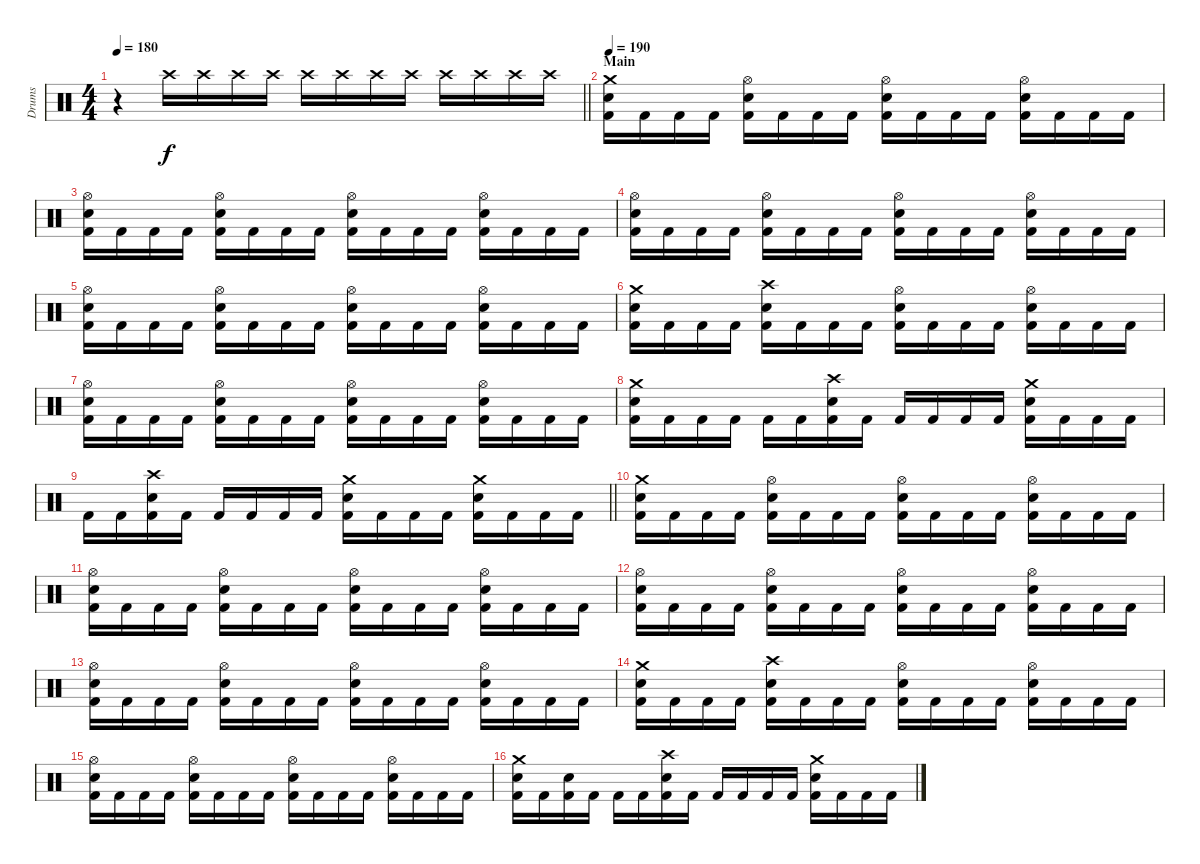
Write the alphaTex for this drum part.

\track ("Drums" "Drums") {instrument percussion}
\staff {score}
\articulation defaults
\ts (4 4)
\section ("" "")
\tempo 180
\clef neutral
\barLineRight lightlight
\ks c
r.4{dy f volume 0} "Crash high (hit)".16{volume 16} "Crash high (hit)".16 "Crash high (hit)".16 "Crash high (hit)".16 "Crash high (hit)".16 "Crash high (hit)".16 "Crash high (hit)".16 "Crash high (hit)".16 "Crash high (hit)".16 "Crash high (hit)".16 "Crash high (hit)".16 "Crash high (hit)".16 |
\section ("" "Main")
\tempo 190
("Kick (hit) 2" "Snare (hit) 2" "Crash medium (hit)").16 "Kick (hit) 2".16 "Kick (hit) 2".16 "Kick (hit) 2".16 ("Kick (hit) 2" "Snare (hit) 2" "Hi-Hat (open)").16 "Kick (hit) 2".16 "Kick (hit) 2".16 "Kick (hit) 2".16 ("Kick (hit) 2" "Snare (hit) 2" "Hi-Hat (open)").16 "Kick (hit) 2".16 "Kick (hit) 2".16 "Kick (hit) 2".16 ("Kick (hit) 2" "Snare (hit) 2" "Hi-Hat (open)").16 "Kick (hit) 2".16 "Kick (hit) 2".16 "Kick (hit) 2".16 |
("Kick (hit) 2" "Snare (hit) 2" "Hi-Hat (open)").16 "Kick (hit) 2".16 "Kick (hit) 2".16 "Kick (hit) 2".16 ("Kick (hit) 2" "Snare (hit) 2" "Hi-Hat (open)").16 "Kick (hit) 2".16 "Kick (hit) 2".16 "Kick (hit) 2".16 ("Kick (hit) 2" "Snare (hit) 2" "Hi-Hat (open)").16 "Kick (hit) 2".16 "Kick (hit) 2".16 "Kick (hit) 2".16 ("Kick (hit) 2" "Snare (hit) 2" "Hi-Hat (open)").16 "Kick (hit) 2".16 "Kick (hit) 2".16 "Kick (hit) 2".16 |
("Kick (hit) 2" "Snare (hit) 2" "Hi-Hat (open)").16 "Kick (hit) 2".16 "Kick (hit) 2".16 "Kick (hit) 2".16 ("Kick (hit) 2" "Snare (hit) 2" "Hi-Hat (open)").16 "Kick (hit) 2".16 "Kick (hit) 2".16 "Kick (hit) 2".16 ("Kick (hit) 2" "Snare (hit) 2" "Hi-Hat (open)").16 "Kick (hit) 2".16 "Kick (hit) 2".16 "Kick (hit) 2".16 ("Kick (hit) 2" "Snare (hit) 2" "Hi-Hat (open)").16 "Kick (hit) 2".16 "Kick (hit) 2".16 "Kick (hit) 2".16 |
("Kick (hit) 2" "Snare (hit) 2" "Hi-Hat (open)").16 "Kick (hit) 2".16 "Kick (hit) 2".16 "Kick (hit) 2".16 ("Kick (hit) 2" "Snare (hit) 2" "Hi-Hat (open)").16 "Kick (hit) 2".16 "Kick (hit) 2".16 "Kick (hit) 2".16 ("Kick (hit) 2" "Snare (hit) 2" "Hi-Hat (open)").16 "Kick (hit) 2".16 "Kick (hit) 2".16 "Kick (hit) 2".16 ("Kick (hit) 2" "Snare (hit) 2" "Hi-Hat (open)").16 "Kick (hit) 2".16 "Kick (hit) 2".16 "Kick (hit) 2".16 |
("Kick (hit) 2" "Snare (hit) 2" "Crash medium (hit)").16 "Kick (hit) 2".16 "Kick (hit) 2".16 "Kick (hit) 2".16 ("Kick (hit) 2" "Snare (hit) 2" "Crash high (hit)").16 "Kick (hit) 2".16 "Kick (hit) 2".16 "Kick (hit) 2".16 ("Kick (hit) 2" "Snare (hit) 2" "Hi-Hat (open)").16 "Kick (hit) 2".16 "Kick (hit) 2".16 "Kick (hit) 2".16 ("Kick (hit) 2" "Snare (hit) 2" "Hi-Hat (open)").16 "Kick (hit) 2".16 "Kick (hit) 2".16 "Kick (hit) 2".16 |
("Kick (hit) 2" "Snare (hit) 2" "Hi-Hat (open)").16 "Kick (hit) 2".16 "Kick (hit) 2".16 "Kick (hit) 2".16 ("Kick (hit) 2" "Snare (hit) 2" "Hi-Hat (open)").16 "Kick (hit) 2".16 "Kick (hit) 2".16 "Kick (hit) 2".16 ("Kick (hit) 2" "Snare (hit) 2" "Hi-Hat (open)").16 "Kick (hit) 2".16 "Kick (hit) 2".16 "Kick (hit) 2".16 ("Kick (hit) 2" "Snare (hit) 2" "Hi-Hat (open)").16 "Kick (hit) 2".16 "Kick (hit) 2".16 "Kick (hit) 2".16 |
("Kick (hit) 2" "Snare (hit) 2" "Crash medium (hit)").16 "Kick (hit) 2".16 "Kick (hit) 2".16 "Kick (hit) 2".16 "Kick (hit) 2".16 "Kick (hit) 2".16 ("Kick (hit) 2" "Snare (hit) 2" "Crash high (hit)").16 "Kick (hit) 2".16 "Kick (hit) 2".16 "Kick (hit) 2".16 "Kick (hit) 2".16 "Kick (hit) 2".16 ("Kick (hit) 2" "Snare (hit) 2" "Crash medium (hit)").16 "Kick (hit) 2".16 "Kick (hit) 2".16 "Kick (hit) 2".16 |
\barLineRight lightlight "Kick (hit) 2".16 "Kick (hit) 2".16
("Kick (hit) 2" "Snare (hit) 2" "Crash high (hit)").16 "Kick (hit) 2".16 "Kick (hit) 2".16 "Kick (hit) 2".16 "Kick (hit) 2".16 "Kick (hit) 2".16 ("Kick (hit) 2" "Snare (hit) 2" "Crash medium (hit)").16 "Kick (hit) 2".16 "Kick (hit) 2".16 "Kick (hit) 2".16 ("Kick (hit) 2" "Snare (hit) 2" "Crash medium (hit)").16 "Kick (hit) 2".16 "Kick (hit) 2".16 "Kick (hit) 2".16 |
\section ("" "")
("Kick (hit) 2" "Snare (hit) 2" "Crash medium (hit)").16 "Kick (hit) 2".16 "Kick (hit) 2".16 "Kick (hit) 2".16 ("Kick (hit) 2" "Snare (hit) 2" "Hi-Hat (open)").16 "Kick (hit) 2".16 "Kick (hit) 2".16 "Kick (hit) 2".16 ("Kick (hit) 2" "Snare (hit) 2" "Hi-Hat (open)").16 "Kick (hit) 2".16 "Kick (hit) 2".16 "Kick (hit) 2".16 ("Kick (hit) 2" "Snare (hit) 2" "Hi-Hat (open)").16 "Kick (hit) 2".16 "Kick (hit) 2".16 "Kick (hit) 2".16 |
("Kick (hit) 2" "Snare (hit) 2" "Hi-Hat (open)").16 "Kick (hit) 2".16 "Kick (hit) 2".16 "Kick (hit) 2".16 ("Kick (hit) 2" "Snare (hit) 2" "Hi-Hat (open)").16 "Kick (hit) 2".16 "Kick (hit) 2".16 "Kick (hit) 2".16 ("Kick (hit) 2" "Snare (hit) 2" "Hi-Hat (open)").16 "Kick (hit) 2".16 "Kick (hit) 2".16 "Kick (hit) 2".16 ("Kick (hit) 2" "Snare (hit) 2" "Hi-Hat (open)").16 "Kick (hit) 2".16 "Kick (hit) 2".16 "Kick (hit) 2".16 |
("Kick (hit) 2" "Snare (hit) 2" "Hi-Hat (open)").16 "Kick (hit) 2".16 "Kick (hit) 2".16 "Kick (hit) 2".16 ("Kick (hit) 2" "Snare (hit) 2" "Hi-Hat (open)").16 "Kick (hit) 2".16 "Kick (hit) 2".16 "Kick (hit) 2".16 ("Kick (hit) 2" "Snare (hit) 2" "Hi-Hat (open)").16 "Kick (hit) 2".16 "Kick (hit) 2".16 "Kick (hit) 2".16 ("Kick (hit) 2" "Snare (hit) 2" "Hi-Hat (open)").16 "Kick (hit) 2".16 "Kick (hit) 2".16 "Kick (hit) 2".16 |
("Kick (hit) 2" "Snare (hit) 2" "Hi-Hat (open)").16 "Kick (hit) 2".16 "Kick (hit) 2".16 "Kick (hit) 2".16 ("Kick (hit) 2" "Snare (hit) 2" "Hi-Hat (open)").16 "Kick (hit) 2".16 "Kick (hit) 2".16 "Kick (hit) 2".16 ("Kick (hit) 2" "Snare (hit) 2" "Hi-Hat (open)").16 "Kick (hit) 2".16 "Kick (hit) 2".16 "Kick (hit) 2".16 ("Kick (hit) 2" "Snare (hit) 2" "Hi-Hat (open)").16 "Kick (hit) 2".16 "Kick (hit) 2".16 "Kick (hit) 2".16 |
("Kick (hit) 2" "Snare (hit) 2" "Crash medium (hit)").16 "Kick (hit) 2".16 "Kick (hit) 2".16 "Kick (hit) 2".16 ("Kick (hit) 2" "Snare (hit) 2" "Crash high (hit)").16 "Kick (hit) 2".16 "Kick (hit) 2".16 "Kick (hit) 2".16 ("Kick (hit) 2" "Snare (hit) 2" "Hi-Hat (open)").16 "Kick (hit) 2".16 "Kick (hit) 2".16 "Kick (hit) 2".16 ("Kick (hit) 2" "Snare (hit) 2" "Hi-Hat (open)").16 "Kick (hit) 2".16 "Kick (hit) 2".16 "Kick (hit) 2".16 |
("Kick (hit) 2" "Snare (hit) 2" "Hi-Hat (open)").16 "Kick (hit) 2".16 "Kick (hit) 2".16 "Kick (hit) 2".16 ("Kick (hit) 2" "Snare (hit) 2" "Hi-Hat (open)").16 "Kick (hit) 2".16 "Kick (hit) 2".16 "Kick (hit) 2".16 ("Kick (hit) 2" "Snare (hit) 2" "Hi-Hat (open)").16 "Kick (hit) 2".16 "Kick (hit) 2".16 "Kick (hit) 2".16 ("Kick (hit) 2" "Snare (hit) 2" "Hi-Hat (open)").16 "Kick (hit) 2".16 "Kick (hit) 2".16 "Kick (hit) 2".16 |
("Kick (hit) 2" "Snare (hit) 2" "Crash medium (hit)").16 "Kick (hit) 2".16 ("Kick (hit) 2" "Snare (hit) 2").16 "Kick (hit) 2".16 "Kick (hit) 2".16 "Kick (hit) 2".16 ("Kick (hit) 2" "Snare (hit) 2" "Crash high (hit)").16 "Kick (hit) 2".16 "Kick (hit) 2".16 "Kick (hit) 2".16 "Kick (hit) 2".16 "Kick (hit) 2".16 ("Kick (hit) 2" "Snare (hit) 2" "Crash medium (hit)").16 "Kick (hit) 2".16 "Kick (hit) 2".16 "Kick (hit) 2".16
